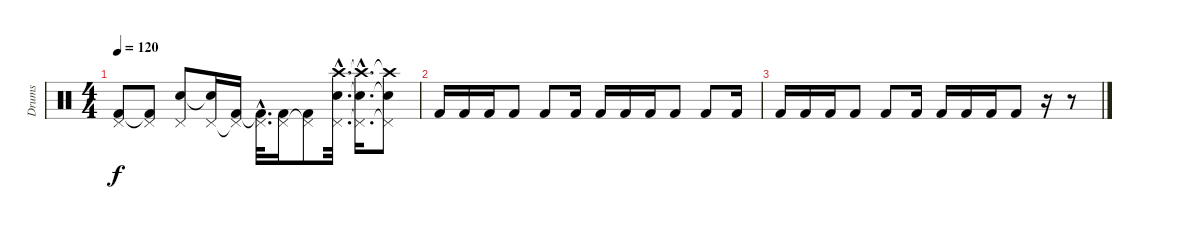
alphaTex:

\track ("Drums" "Drums") {instrument percussion}
\staff {score}
\articulation defaults
\ts (4 4)
\tempo 120
\clef neutral
\ks c
("Pedal Hi-Hat (hit)" "Kick (hit) 2").8{dy f} ("Pedal Hi-Hat (hit)" "Kick (hit) 2"{t}).8 ("Pedal Hi-Hat (hit)" "Snare (hit) 2").8 ("Pedal Hi-Hat (hit)" "Snare (hit) 2"{t}).16 ("Pedal Hi-Hat (hit)"{t} "Kick (hit) 2").16 ("Pedal Hi-Hat (hit)"{hac} "Kick (hit) 2"{hac t}).32{d} ("Pedal Hi-Hat (hit)" "Kick (hit) 2").16 ("Pedal Hi-Hat (hit)"{t} "Kick (hit) 2").8 ("Pedal Hi-Hat (hit)"{hac} "Crash high (hit)"{hac} "Snare (hit) 2"{hac}).32{d} ("Pedal Hi-Hat (hit)"{hac t} "Crash high (hit)"{hac t} "Snare (hit) 2"{hac t}).16{d} ("Pedal Hi-Hat (hit)"{t} "Crash high (hit)"{t} "Snare (hit) 2"{t}).8 |
"Kick (hit) 2".16 "Kick (hit) 2".16 "Kick (hit) 2".16 "Kick (hit) 2".8 "Kick (hit) 2".8 "Kick (hit) 2".16 "Kick (hit) 2".16 "Kick (hit) 2".16 "Kick (hit) 2".16 "Kick (hit) 2".8 "Kick (hit) 2".8 "Kick (hit) 2".16 |
"Kick (hit) 2".16 "Kick (hit) 2".16 "Kick (hit) 2".16 "Kick (hit) 2".8 "Kick (hit) 2".8 "Kick (hit) 2".16 "Kick (hit) 2".16 "Kick (hit) 2".16 "Kick (hit) 2".16 "Kick (hit) 2".8 r.16 r.8
